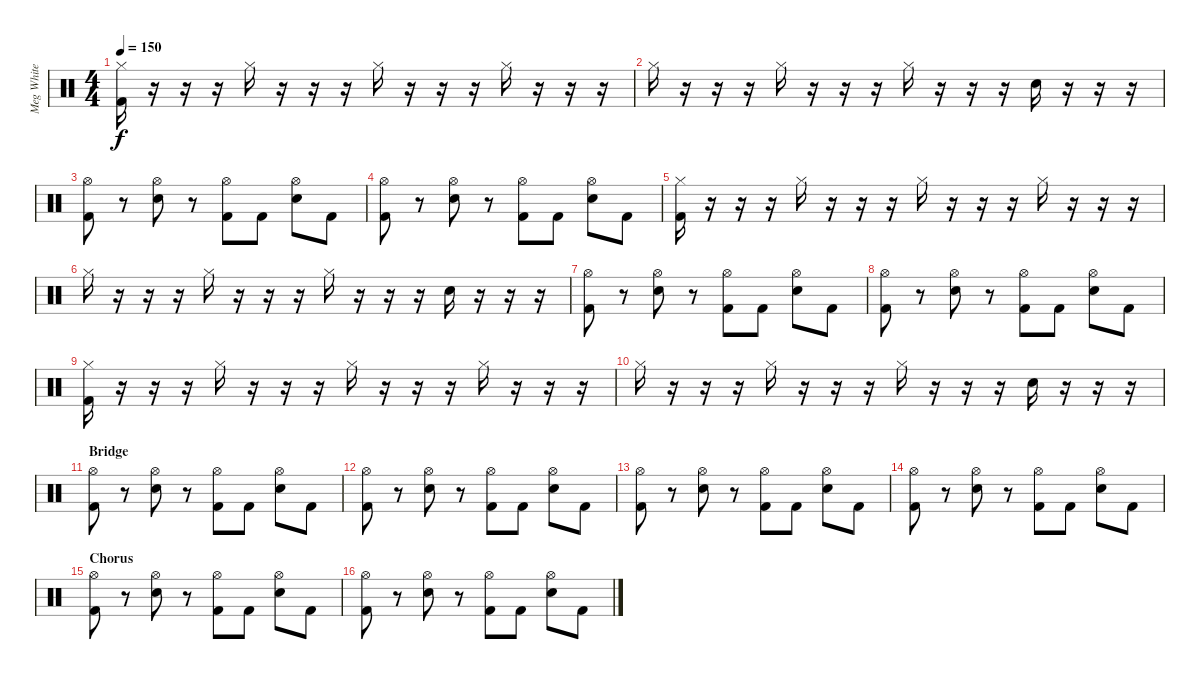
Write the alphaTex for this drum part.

\track ("Meg White - Drums" "Meg White ") {instrument percussion}
\staff {score}
\articulation defaults
\ts (4 4)
\tempo 150
\clef neutral
\ks c
("Hi-Hat (closed)" "Kick (hit) 2").16{dy f} r.16 r.16 r.16 "Hi-Hat (closed)".16 r.16 r.16 r.16 "Hi-Hat (closed)".16 r.16 r.16 r.16 "Hi-Hat (closed)".16 r.16 r.16 r.16 |
"Hi-Hat (closed)".16 r.16 r.16 r.16 "Hi-Hat (closed)".16 r.16 r.16 r.16 "Hi-Hat (closed)".16 r.16 r.16 r.16 "Electric Snare (hit)".16 r.16 r.16 r.16 |
("Hi-Hat (open)" "Kick (hit) 2").8 r.8 ("Hi-Hat (open)" "Electric Snare (hit)").8 r.8 ("Hi-Hat (open)" "Kick (hit) 2").8 "Kick (hit) 2".8 ("Hi-Hat (open)" "Electric Snare (hit)").8 "Kick (hit) 2".8 |
("Hi-Hat (open)" "Kick (hit) 2").8 r.8 ("Hi-Hat (open)" "Electric Snare (hit)").8 r.8 ("Hi-Hat (open)" "Kick (hit) 2").8 "Kick (hit) 2".8 ("Hi-Hat (open)" "Electric Snare (hit)").8 "Kick (hit) 2".8 |
("Hi-Hat (closed)" "Kick (hit) 2").16 r.16 r.16 r.16 "Hi-Hat (closed)".16 r.16 r.16 r.16 "Hi-Hat (closed)".16 r.16 r.16 r.16 "Hi-Hat (closed)".16 r.16 r.16 r.16 |
"Hi-Hat (closed)".16 r.16 r.16 r.16 "Hi-Hat (closed)".16 r.16 r.16 r.16 "Hi-Hat (closed)".16 r.16 r.16 r.16 "Electric Snare (hit)".16 r.16 r.16 r.16 |
("Hi-Hat (open)" "Kick (hit) 2").8 r.8 ("Hi-Hat (open)" "Electric Snare (hit)").8 r.8 ("Hi-Hat (open)" "Kick (hit) 2").8 "Kick (hit) 2".8 ("Hi-Hat (open)" "Electric Snare (hit)").8 "Kick (hit) 2".8 |
("Hi-Hat (open)" "Kick (hit) 2").8 r.8 ("Hi-Hat (open)" "Electric Snare (hit)").8 r.8 ("Hi-Hat (open)" "Kick (hit) 2").8 "Kick (hit) 2".8 ("Hi-Hat (open)" "Electric Snare (hit)").8 "Kick (hit) 2".8 |
("Hi-Hat (closed)" "Kick (hit) 2").16 r.16 r.16 r.16 "Hi-Hat (closed)".16 r.16 r.16 r.16 "Hi-Hat (closed)".16 r.16 r.16 r.16 "Hi-Hat (closed)".16 r.16 r.16 r.16 |
"Hi-Hat (closed)".16 r.16 r.16 r.16 "Hi-Hat (closed)".16 r.16 r.16 r.16 "Hi-Hat (closed)".16 r.16 r.16 r.16 "Electric Snare (hit)".16 r.16 r.16 r.16 |
\section ("" "Bridge")
("Hi-Hat (open)" "Kick (hit) 2").8 r.8 ("Hi-Hat (open)" "Electric Snare (hit)").8 r.8 ("Hi-Hat (open)" "Kick (hit) 2").8 "Kick (hit) 2".8 ("Hi-Hat (open)" "Electric Snare (hit)").8 "Kick (hit) 2".8 |
("Hi-Hat (open)" "Kick (hit) 2").8 r.8 ("Hi-Hat (open)" "Electric Snare (hit)").8 r.8 ("Hi-Hat (open)" "Kick (hit) 2").8 "Kick (hit) 2".8 ("Hi-Hat (open)" "Electric Snare (hit)").8 "Kick (hit) 2".8 |
("Hi-Hat (open)" "Kick (hit) 2").8 r.8 ("Hi-Hat (open)" "Electric Snare (hit)").8 r.8 ("Hi-Hat (open)" "Kick (hit) 2").8 "Kick (hit) 2".8 ("Hi-Hat (open)" "Electric Snare (hit)").8 "Kick (hit) 2".8 |
("Hi-Hat (open)" "Kick (hit) 2").8 r.8 ("Hi-Hat (open)" "Electric Snare (hit)").8 r.8 ("Hi-Hat (open)" "Kick (hit) 2").8 "Kick (hit) 2".8 ("Hi-Hat (open)" "Electric Snare (hit)").8 "Kick (hit) 2".8 |
\section ("" "Chorus")
("Hi-Hat (open)" "Kick (hit) 2").8 r.8 ("Hi-Hat (open)" "Electric Snare (hit)").8 r.8 ("Hi-Hat (open)" "Kick (hit) 2").8 "Kick (hit) 2".8 ("Hi-Hat (open)" "Electric Snare (hit)").8 "Kick (hit) 2".8 |
("Hi-Hat (open)" "Kick (hit) 2").8 r.8 ("Hi-Hat (open)" "Electric Snare (hit)").8 r.8 ("Hi-Hat (open)" "Kick (hit) 2").8 "Kick (hit) 2".8 ("Hi-Hat (open)" "Electric Snare (hit)").8 "Kick (hit) 2".8
